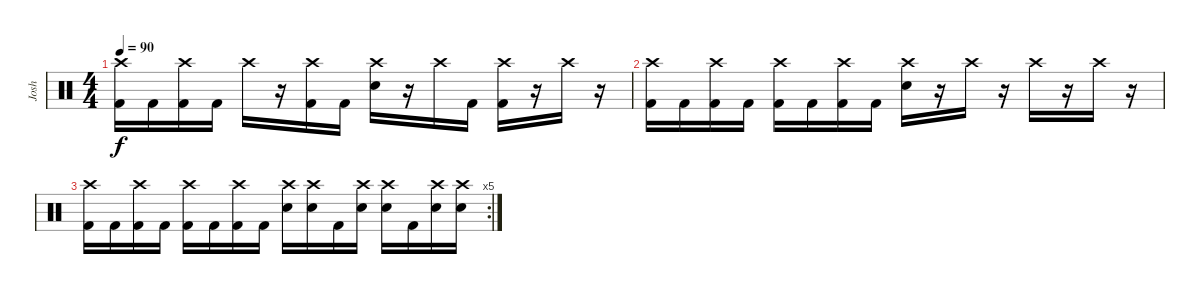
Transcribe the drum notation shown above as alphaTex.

\track ("Josh" "Josh") {instrument percussion}
\staff {score}
\articulation defaults
\ts (4 4)
\tempo 90
\clef neutral
\ks c
("Crash high (hit)" "Kick (hit) 2").16{dy f} "Kick (hit) 2".16 ("Crash high (hit)" "Kick (hit) 2").16 "Kick (hit) 2".16 "Crash high (hit)".16 r.16 ("Crash high (hit)" "Kick (hit) 2").16 "Kick (hit) 2".16 ("Crash high (hit)" "Electric Snare (hit)").16 r.16 "Crash high (hit)".16 "Kick (hit) 2".16 ("Crash high (hit)" "Kick (hit) 2").16 r.16 "Crash high (hit)".16 r.16 |
("Crash high (hit)" "Kick (hit) 2").16 "Kick (hit) 2".16 ("Crash high (hit)" "Kick (hit) 2").16 "Kick (hit) 2".16 ("Crash high (hit)" "Kick (hit) 2").16 "Kick (hit) 2".16 ("Crash high (hit)" "Kick (hit) 2").16 "Kick (hit) 2".16 ("Crash high (hit)" "Electric Snare (hit)").16 r.16 "Crash high (hit)".16 r.16 "Crash high (hit)".16 r.16 "Crash high (hit)".16 r.16 |
\rc 5
("Crash high (hit)" "Kick (hit) 2").16 "Kick (hit) 2".16 ("Crash high (hit)" "Kick (hit) 2").16 "Kick (hit) 2".16 ("Crash high (hit)" "Kick (hit) 2").16 "Kick (hit) 2".16 ("Crash high (hit)" "Kick (hit) 2").16 "Kick (hit) 2".16 ("Crash high (hit)" "Electric Snare (hit)").16 ("Crash high (hit)" "Electric Snare (hit)").16 "Kick (hit) 2".16 ("Crash high (hit)" "Electric Snare (hit)").16 ("Crash high (hit)" "Electric Snare (hit)").16 "Kick (hit) 2".16 ("Crash high (hit)" "Electric Snare (hit)").16 ("Crash high (hit)" "Electric Snare (hit)").16
